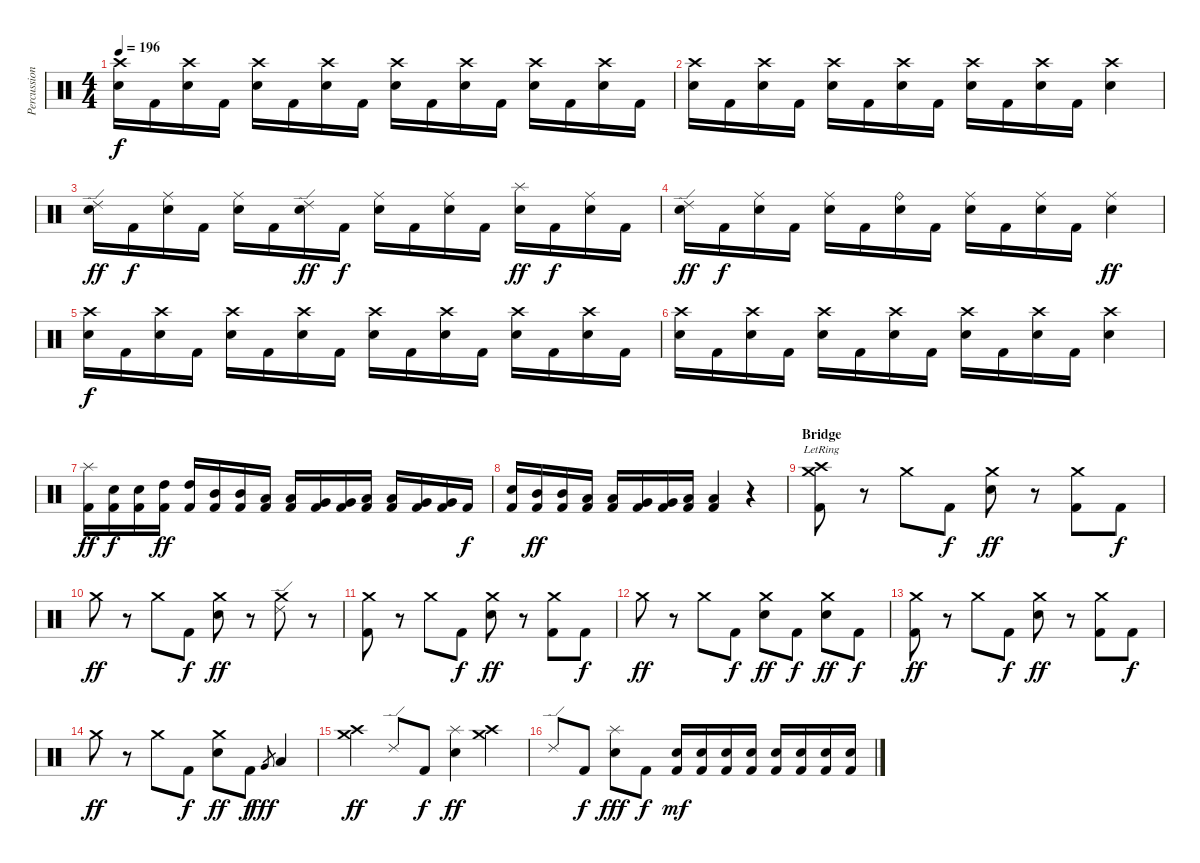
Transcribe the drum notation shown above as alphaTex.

\track ("Percussions" "Percussion") {instrument percussion}
\staff {score}
\articulation defaults
\ts (4 4)
\tempo 196
\clef neutral
\ks c
("Crash high (hit)" "Electric Snare (hit)").16{dy f} "Kick (hit) 2".16 ("Crash high (hit)" "Electric Snare (hit)").16 "Kick (hit) 2".16 ("Crash high (hit)" "Electric Snare (hit)").16 "Kick (hit) 2".16 ("Crash high (hit)" "Electric Snare (hit)").16 "Kick (hit) 2".16 ("Crash high (hit)" "Electric Snare (hit)").16 "Kick (hit) 2".16 ("Crash high (hit)" "Electric Snare (hit)").16 "Kick (hit) 2".16 ("Crash high (hit)" "Electric Snare (hit)").16 "Kick (hit) 2".16 ("Crash high (hit)" "Electric Snare (hit)").16 "Kick (hit) 2".16 |
("Crash high (hit)" "Electric Snare (hit)").16 "Kick (hit) 2".16 ("Crash high (hit)" "Electric Snare (hit)").16 "Kick (hit) 2".16 ("Crash high (hit)" "Electric Snare (hit)").16 "Kick (hit) 2".16 ("Crash high (hit)" "Electric Snare (hit)").16 "Kick (hit) 2".16 ("Crash high (hit)" "Electric Snare (hit)").16 "Kick (hit) 2".16 ("Crash high (hit)" "Electric Snare (hit)").16 "Kick (hit) 2".16 ("Crash high (hit)" "Electric Snare (hit)").4 |
("Ride (edge) 2" "Electric Snare (hit)").16{dy ff} "Kick (hit) 2".16{dy f} ("Ride (middle)" "Electric Snare (hit)").16 "Kick (hit) 2".16 ("Ride (middle)" "Electric Snare (hit)").16 "Kick (hit) 2".16 ("Ride (edge) 2" "Electric Snare (hit)").16{dy ff} "Kick (hit) 2".16{dy f} ("Ride (middle)" "Electric Snare (hit)").16 "Kick (hit) 2".16 ("Ride (middle)" "Electric Snare (hit)").16 "Kick (hit) 2".16 ("Splash (hit)" "Electric Snare (hit)").16{dy ff} "Kick (hit) 2".16{dy f} ("Ride (middle)" "Electric Snare (hit)").16 "Kick (hit) 2".16 |
("Ride (edge) 2" "Electric Snare (hit)").16{dy ff} "Kick (hit) 2".16{dy f} ("Ride (middle)" "Electric Snare (hit)").16 "Kick (hit) 2".16 ("Ride (middle)" "Electric Snare (hit)").16 "Kick (hit) 2".16 ("Ride (bell)" "Electric Snare (hit)").16 "Kick (hit) 2".16 ("Ride (middle)" "Electric Snare (hit)").16 "Kick (hit) 2".16 ("Ride (middle)" "Electric Snare (hit)").16 "Kick (hit) 2".16 ("Ride (middle)" "Electric Snare (hit)").4{dy ff} |
("Crash high (hit)" "Electric Snare (hit)").16{dy f} "Kick (hit) 2".16 ("Crash high (hit)" "Electric Snare (hit)").16 "Kick (hit) 2".16 ("Crash high (hit)" "Electric Snare (hit)").16 "Kick (hit) 2".16 ("Crash high (hit)" "Electric Snare (hit)").16 "Kick (hit) 2".16 ("Crash high (hit)" "Electric Snare (hit)").16 "Kick (hit) 2".16 ("Crash high (hit)" "Electric Snare (hit)").16 "Kick (hit) 2".16 ("Crash high (hit)" "Electric Snare (hit)").16 "Kick (hit) 2".16 ("Crash high (hit)" "Electric Snare (hit)").16 "Kick (hit) 2".16 |
("Crash high (hit)" "Electric Snare (hit)").16 "Kick (hit) 2".16 ("Crash high (hit)" "Electric Snare (hit)").16 "Kick (hit) 2".16 ("Crash high (hit)" "Electric Snare (hit)").16 "Kick (hit) 2".16 ("Crash high (hit)" "Electric Snare (hit)").16 "Kick (hit) 2".16 ("Crash high (hit)" "Electric Snare (hit)").16 "Kick (hit) 2".16 ("Crash high (hit)" "Electric Snare (hit)").16 "Kick (hit) 2".16 ("Crash high (hit)" "Electric Snare (hit)").4 |
("Splash (hit)" "Kick (hit) 2").16{dy ff} ("Electric Snare (hit)" "Kick (hit) 2").16{dy f} ("Electric Snare (hit)" "Kick (hit) 2").16 ("High Tom (hit)" "Kick (hit) 2").16{dy ff} ("High Tom (hit)" "Kick (hit) 2").16 ("Mid Tom (hit)" "Kick (hit) 2").16 ("Mid Tom (hit)" "Kick (hit) 2").16 ("Low Tom (hit)" "Kick (hit) 2").16 ("Low Tom (hit)" "Kick (hit) 2").16 ("Very Low Tom (hit)" "Kick (hit) 2").16 ("Very Low Tom (hit)" "Kick (hit) 2").16 ("Low Tom (hit)" "Kick (hit) 2").16 ("Low Tom (hit)" "Kick (hit) 2").16 ("Very Low Tom (hit)" "Kick (hit) 2").16 ("Very Low Tom (hit)" "Kick (hit) 2").16 "Kick (hit) 2".16{dy f} |
("Electric Snare (hit)" "Kick (hit) 2").16 ("Mid Tom (hit)" "Kick (hit) 2").16{dy ff} ("Mid Tom (hit)" "Kick (hit) 2").16 ("Low Tom (hit)" "Kick (hit) 2").16 ("Low Tom (hit)" "Kick (hit) 2").16 ("Very Low Tom (hit)" "Kick (hit) 2").16 ("Very Low Tom (hit)" "Kick (hit) 2").16 ("Low Floor Tom (hit)" "Kick (hit) 2").16 ("Low Tom (hit)" "Kick (hit) 2").4 r.4 |
\section ("" "Bridge")
("Crash high (hit)"{lr} "Crash medium (hit)" "Kick (hit) 2").8 r.8 "Crash medium (hit)".8 "Kick (hit) 2".8{dy f} ("Crash medium (hit)" "Electric Snare (hit)").8{dy ff} r.8 ("Crash medium (hit)" "Kick (hit) 2").8 "Kick (hit) 2".8{dy f} |
"Crash medium (hit)".8{dy ff} r.8 "Crash medium (hit)".8 "Kick (hit) 2".8{dy f} ("Crash medium (hit)" "Electric Snare (hit)").8{dy ff} r.8 ("Ride (edge) 2" "Crash medium (hit)").8 r.8 |
("Crash medium (hit)" "Kick (hit) 2").8 r.8 "Crash medium (hit)".8 "Kick (hit) 2".8{dy f} ("Crash medium (hit)" "Electric Snare (hit)").8{dy ff} r.8 ("Crash medium (hit)" "Kick (hit) 2").8 "Kick (hit) 2".8{dy f} |
"Crash medium (hit)".8{dy ff} r.8 "Crash medium (hit)".8 "Kick (hit) 2".8{dy f} ("Crash medium (hit)" "Electric Snare (hit)").8{dy ff} "Kick (hit) 2".8{dy f} ("Crash medium (hit)" "Electric Snare (hit)").8{dy ff} "Kick (hit) 2".8{dy f} |
("Crash medium (hit)" "Kick (hit) 2").8{dy ff} r.8 "Crash medium (hit)".8 "Kick (hit) 2".8{dy f} ("Crash medium (hit)" "Electric Snare (hit)").8{dy ff} r.8 ("Crash medium (hit)" "Kick (hit) 2").8 "Kick (hit) 2".8{dy f} |
"Crash medium (hit)".8{dy ff} r.8 "Crash medium (hit)".8 "Kick (hit) 2".8{dy f} ("Crash medium (hit)" "Electric Snare (hit)").8{dy ff} "Kick (hit) 2".8{dy f} "Very Low Tom (hit)".8{gr dy fff} "Low Tom (hit)".4 |
("Crash medium (hit)" "Crash high (hit)").4{dy ff} "Ride (edge) 2".8 "Kick (hit) 2".8{dy f} ("Splash (hit)" "Electric Snare (hit)").4{dy ff} ("Crash medium (hit)" "Crash high (hit)").4 |
"Ride (edge) 2".8 "Kick (hit) 2".8{dy f} ("Splash (hit)" "Electric Snare (hit)").8{dy fff} "Kick (hit) 2".8{dy f} ("Electric Snare (hit)" "Kick (hit) 2").16{dy mf} ("Electric Snare (hit)" "Kick (hit) 2").16 ("Electric Snare (hit)" "Kick (hit) 2").16 ("Electric Snare (hit)" "Kick (hit) 2").16 ("Electric Snare (hit)" "Kick (hit) 2").16 ("Electric Snare (hit)" "Kick (hit) 2").16 ("Electric Snare (hit)" "Kick (hit) 2").16 ("Electric Snare (hit)" "Kick (hit) 2").16
